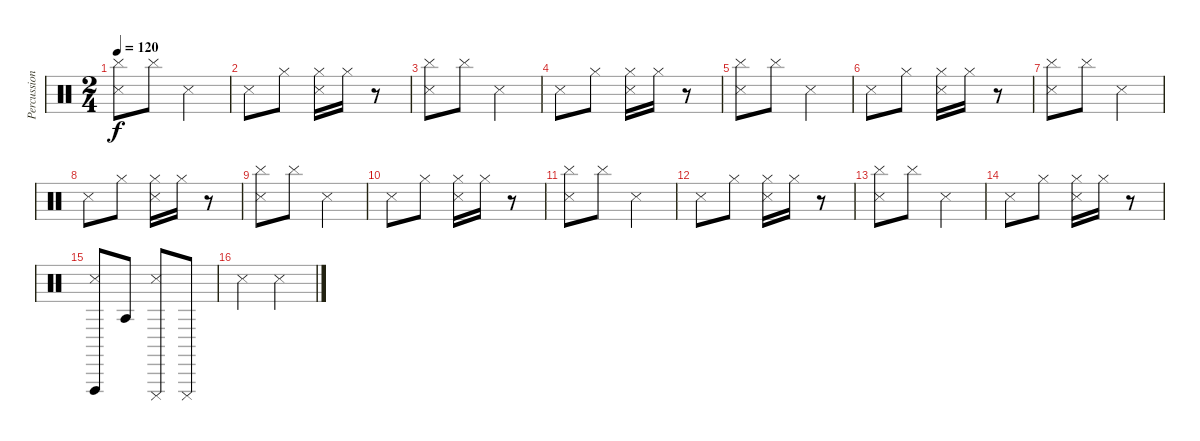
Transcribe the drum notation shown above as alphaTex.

\track ("Percussion" "Percussion") {instrument percussion}
\staff {score}
\articulation defaults
\ts (2 4)
\tempo 120
\clef neutral
\ks aminor
("Snare (side stick) 3" "Cymbal (hit)").8{dy f} "Cymbal (hit)".8 "Snare (side stick) 3".4 |
"Snare (side stick) 3".8 "Hi-Hat (closed)".8 ("Snare (side stick) 3" "Hi-Hat (closed)").16 "Hi-Hat (closed)".16 r.8 |
("Snare (side stick) 3" "Cymbal (hit)").8 "Cymbal (hit)".8 "Snare (side stick) 3".4 |
"Snare (side stick) 3".8 "Hi-Hat (closed)".8 ("Snare (side stick) 3" "Hi-Hat (closed)").16 "Hi-Hat (closed)".16 r.8 |
("Snare (side stick) 3" "Cymbal (hit)").8 "Cymbal (hit)".8 "Snare (side stick) 3".4 |
"Snare (side stick) 3".8 "Hi-Hat (closed)".8 ("Snare (side stick) 3" "Hi-Hat (closed)").16 "Hi-Hat (closed)".16 r.8 |
("Snare (side stick) 3" "Cymbal (hit)").8 "Cymbal (hit)".8 "Snare (side stick) 3".4 |
"Snare (side stick) 3".8 "Hi-Hat (closed)".8 ("Snare (side stick) 3" "Hi-Hat (closed)").16 "Hi-Hat (closed)".16 r.8 |
("Snare (side stick) 3" "Cymbal (hit)").8 "Cymbal (hit)".8 "Snare (side stick) 3".4 |
"Snare (side stick) 3".8 "Hi-Hat (closed)".8 ("Snare (side stick) 3" "Hi-Hat (closed)").16 "Hi-Hat (closed)".16 r.8 |
("Snare (side stick) 3" "Cymbal (hit)").8 "Cymbal (hit)".8 "Snare (side stick) 3".4 |
"Snare (side stick) 3".8 "Hi-Hat (closed)".8 ("Snare (side stick) 3" "Hi-Hat (closed)").16 "Hi-Hat (closed)".16 r.8 |
("Snare (side stick) 3" "Cymbal (hit)").8 "Cymbal (hit)".8 "Snare (side stick) 3".4 |
"Snare (side stick) 3".8 "Hi-Hat (closed)".8 ("Snare (side stick) 3" "Hi-Hat (closed)").16 "Hi-Hat (closed)".16 r.8 |
("Vibraslap (hit)" "Snare (side stick) 3").8 "Agogo tow (hit)".8 ("Cuica (mute)" "Snare (side stick) 3").8 "Cuica (mute)".8 |
"Snare (side stick) 3".4 "Snare (side stick) 3".4
